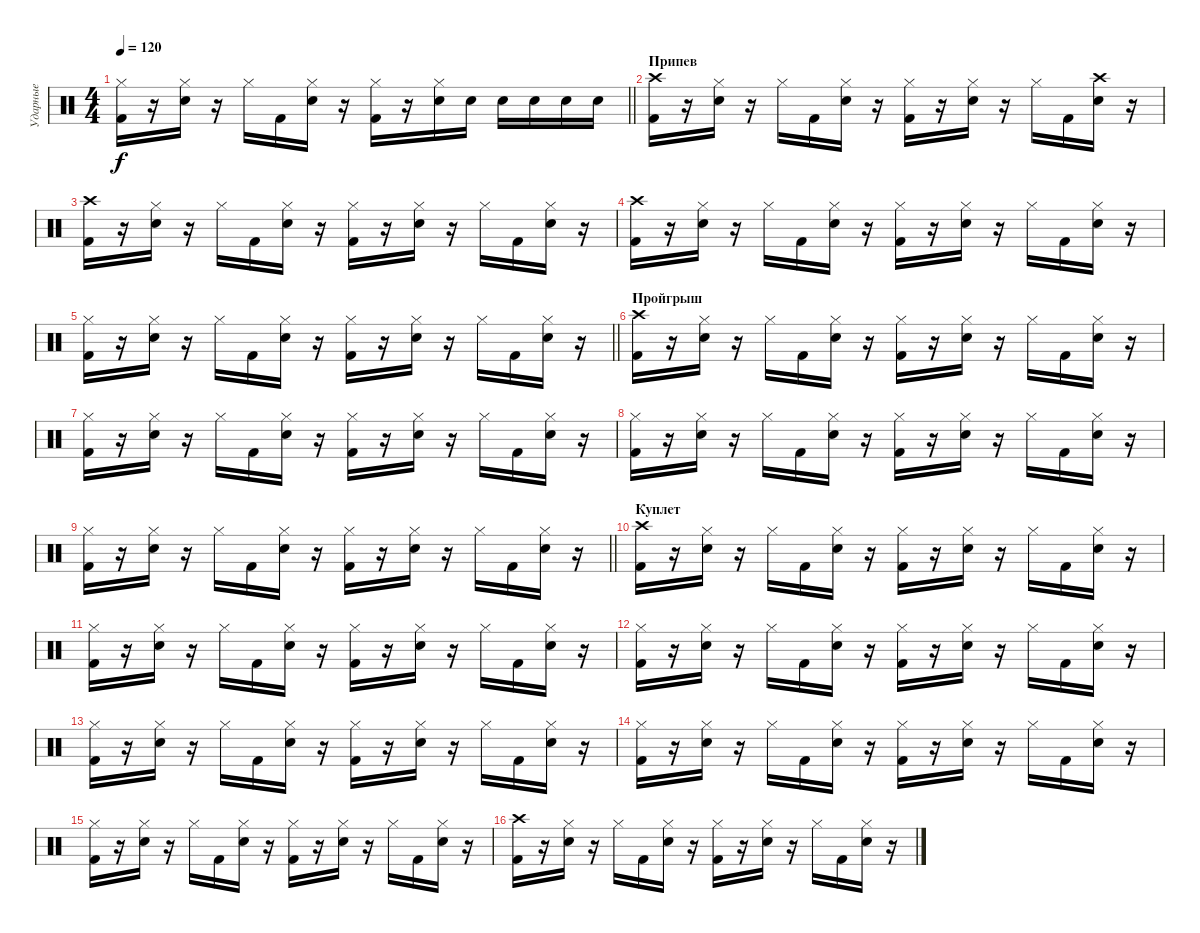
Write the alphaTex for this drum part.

\track ("Ударные" "Ударные") {instrument percussion}
\staff {score}
\articulation defaults
\ts (4 4)
\tempo 120
\clef neutral
\barLineRight lightlight
\ks c
("Kick (hit) 2" "Hi-Hat (closed)").16{dy f} r.16 ("Electric Snare (hit)" "Hi-Hat (closed)").16 r.16 "Hi-Hat (closed)".16 "Kick (hit) 2".16 ("Electric Snare (hit)" "Hi-Hat (closed)").16 r.16 ("Kick (hit) 2" "Hi-Hat (closed)").16 r.16 ("Electric Snare (hit)" "Hi-Hat (closed)").16 "Electric Snare (hit)".16 "Electric Snare (hit)".16 "Electric Snare (hit)".16 "Electric Snare (hit)".16 "Electric Snare (hit)".16 |
\section ("" "Припев")
("Kick (hit) 2" "Crash high (hit)").16 r.16 ("Electric Snare (hit)" "Hi-Hat (closed)").16 r.16 "Hi-Hat (closed)".16 "Kick (hit) 2".16 ("Electric Snare (hit)" "Hi-Hat (closed)").16 r.16 ("Kick (hit) 2" "Hi-Hat (closed)").16 r.16 ("Electric Snare (hit)" "Hi-Hat (closed)").16 r.16 "Hi-Hat (closed)".16 "Kick (hit) 2".16 ("Electric Snare (hit)" "Crash high (hit)").16 r.16 |
("Kick (hit) 2" "Crash high (hit)").16 r.16 ("Electric Snare (hit)" "Hi-Hat (closed)").16 r.16 "Hi-Hat (closed)".16 "Kick (hit) 2".16 ("Electric Snare (hit)" "Hi-Hat (closed)").16 r.16 ("Kick (hit) 2" "Hi-Hat (closed)").16 r.16 ("Electric Snare (hit)" "Hi-Hat (closed)").16 r.16 "Hi-Hat (closed)".16 "Kick (hit) 2".16 ("Electric Snare (hit)" "Hi-Hat (closed)").16 r.16 |
("Kick (hit) 2" "Crash high (hit)").16 r.16 ("Electric Snare (hit)" "Hi-Hat (closed)").16 r.16 "Hi-Hat (closed)".16 "Kick (hit) 2".16 ("Electric Snare (hit)" "Hi-Hat (closed)").16 r.16 ("Kick (hit) 2" "Hi-Hat (closed)").16 r.16 ("Electric Snare (hit)" "Hi-Hat (closed)").16 r.16 "Hi-Hat (closed)".16 "Kick (hit) 2".16 ("Electric Snare (hit)" "Hi-Hat (closed)").16 r.16 |
\barLineRight lightlight
("Kick (hit) 2" "Hi-Hat (closed)").16 r.16 ("Electric Snare (hit)" "Hi-Hat (closed)").16 r.16 "Hi-Hat (closed)".16 "Kick (hit) 2".16 ("Electric Snare (hit)" "Hi-Hat (closed)").16 r.16 ("Kick (hit) 2" "Hi-Hat (closed)").16 r.16 ("Electric Snare (hit)" "Hi-Hat (closed)").16 r.16 "Hi-Hat (closed)".16 "Kick (hit) 2".16 ("Electric Snare (hit)" "Hi-Hat (closed)").16 r.16 |
\section ("" "Пройгрыш")
("Kick (hit) 2" "Crash high (hit)").16 r.16 ("Electric Snare (hit)" "Hi-Hat (closed)").16 r.16 "Hi-Hat (closed)".16 "Kick (hit) 2".16 ("Electric Snare (hit)" "Hi-Hat (closed)").16 r.16 ("Kick (hit) 2" "Hi-Hat (closed)").16 r.16 ("Electric Snare (hit)" "Hi-Hat (closed)").16 r.16 "Hi-Hat (closed)".16 "Kick (hit) 2".16 ("Electric Snare (hit)" "Hi-Hat (closed)").16 r.16 |
("Kick (hit) 2" "Hi-Hat (closed)").16 r.16 ("Electric Snare (hit)" "Hi-Hat (closed)").16 r.16 "Hi-Hat (closed)".16 "Kick (hit) 2".16 ("Electric Snare (hit)" "Hi-Hat (closed)").16 r.16 ("Kick (hit) 2" "Hi-Hat (closed)").16 r.16 ("Electric Snare (hit)" "Hi-Hat (closed)").16 r.16 "Hi-Hat (closed)".16 "Kick (hit) 2".16 ("Electric Snare (hit)" "Hi-Hat (closed)").16 r.16 |
("Kick (hit) 2" "Hi-Hat (closed)").16 r.16 ("Electric Snare (hit)" "Hi-Hat (closed)").16 r.16 "Hi-Hat (closed)".16 "Kick (hit) 2".16 ("Electric Snare (hit)" "Hi-Hat (closed)").16 r.16 ("Kick (hit) 2" "Hi-Hat (closed)").16 r.16 ("Electric Snare (hit)" "Hi-Hat (closed)").16 r.16 "Hi-Hat (closed)".16 "Kick (hit) 2".16 ("Electric Snare (hit)" "Hi-Hat (closed)").16 r.16 |
\barLineRight lightlight
("Kick (hit) 2" "Hi-Hat (closed)").16 r.16 ("Electric Snare (hit)" "Hi-Hat (closed)").16 r.16 "Hi-Hat (closed)".16 "Kick (hit) 2".16 ("Electric Snare (hit)" "Hi-Hat (closed)").16 r.16 ("Kick (hit) 2" "Hi-Hat (closed)").16 r.16 ("Electric Snare (hit)" "Hi-Hat (closed)").16 r.16 "Hi-Hat (closed)".16 "Kick (hit) 2".16 ("Electric Snare (hit)" "Hi-Hat (closed)").16 r.16 |
\section ("" "Куплет")
("Kick (hit) 2" "Crash high (hit)").16 r.16 ("Electric Snare (hit)" "Hi-Hat (closed)").16 r.16 "Hi-Hat (closed)".16 "Kick (hit) 2".16 ("Electric Snare (hit)" "Hi-Hat (closed)").16 r.16 ("Kick (hit) 2" "Hi-Hat (closed)").16 r.16 ("Electric Snare (hit)" "Hi-Hat (closed)").16 r.16 "Hi-Hat (closed)".16 "Kick (hit) 2".16 ("Electric Snare (hit)" "Hi-Hat (closed)").16 r.16 |
("Kick (hit) 2" "Hi-Hat (closed)").16 r.16 ("Electric Snare (hit)" "Hi-Hat (closed)").16 r.16 "Hi-Hat (closed)".16 "Kick (hit) 2".16 ("Electric Snare (hit)" "Hi-Hat (closed)").16 r.16 ("Kick (hit) 2" "Hi-Hat (closed)").16 r.16 ("Electric Snare (hit)" "Hi-Hat (closed)").16 r.16 "Hi-Hat (closed)".16 "Kick (hit) 2".16 ("Electric Snare (hit)" "Hi-Hat (closed)").16 r.16 |
("Kick (hit) 2" "Hi-Hat (closed)").16 r.16 ("Electric Snare (hit)" "Hi-Hat (closed)").16 r.16 "Hi-Hat (closed)".16 "Kick (hit) 2".16 ("Electric Snare (hit)" "Hi-Hat (closed)").16 r.16 ("Kick (hit) 2" "Hi-Hat (closed)").16 r.16 ("Electric Snare (hit)" "Hi-Hat (closed)").16 r.16 "Hi-Hat (closed)".16 "Kick (hit) 2".16 ("Electric Snare (hit)" "Hi-Hat (closed)").16 r.16 |
("Kick (hit) 2" "Hi-Hat (closed)").16 r.16 ("Electric Snare (hit)" "Hi-Hat (closed)").16 r.16 "Hi-Hat (closed)".16 "Kick (hit) 2".16 ("Electric Snare (hit)" "Hi-Hat (closed)").16 r.16 ("Kick (hit) 2" "Hi-Hat (closed)").16 r.16 ("Electric Snare (hit)" "Hi-Hat (closed)").16 r.16 "Hi-Hat (closed)".16 "Kick (hit) 2".16 ("Electric Snare (hit)" "Hi-Hat (closed)").16 r.16 |
("Kick (hit) 2" "Hi-Hat (closed)").16 r.16 ("Electric Snare (hit)" "Hi-Hat (closed)").16 r.16 "Hi-Hat (closed)".16 "Kick (hit) 2".16 ("Electric Snare (hit)" "Hi-Hat (closed)").16 r.16 ("Kick (hit) 2" "Hi-Hat (closed)").16 r.16 ("Electric Snare (hit)" "Hi-Hat (closed)").16 r.16 "Hi-Hat (closed)".16 "Kick (hit) 2".16 ("Electric Snare (hit)" "Hi-Hat (closed)").16 r.16 |
("Kick (hit) 2" "Hi-Hat (closed)").16 r.16 ("Electric Snare (hit)" "Hi-Hat (closed)").16 r.16 "Hi-Hat (closed)".16 "Kick (hit) 2".16 ("Electric Snare (hit)" "Hi-Hat (closed)").16 r.16 ("Kick (hit) 2" "Hi-Hat (closed)").16 r.16 ("Electric Snare (hit)" "Hi-Hat (closed)").16 r.16 "Hi-Hat (closed)".16 "Kick (hit) 2".16 ("Electric Snare (hit)" "Hi-Hat (closed)").16 r.16 |
("Kick (hit) 2" "Crash high (hit)").16 r.16 ("Electric Snare (hit)" "Hi-Hat (closed)").16 r.16 "Hi-Hat (closed)".16 "Kick (hit) 2".16 ("Electric Snare (hit)" "Hi-Hat (closed)").16 r.16 ("Kick (hit) 2" "Hi-Hat (closed)").16 r.16 ("Electric Snare (hit)" "Hi-Hat (closed)").16 r.16 "Hi-Hat (closed)".16 "Kick (hit) 2".16 ("Electric Snare (hit)" "Hi-Hat (closed)").16 r.16
